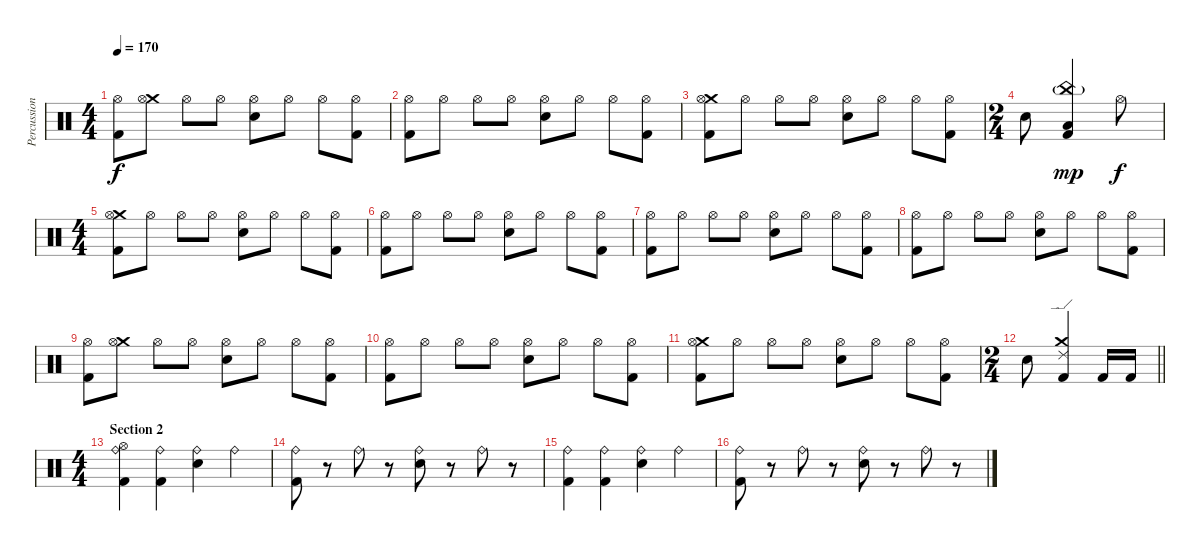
\track ("Percussions" "Percussion") {instrument percussion}
\staff {score}
\articulation defaults
\ts (4 4)
\tempo 170
\clef neutral
\ks c
("Hi-Hat (open)" "Kick (hit) 2").8{dy f} ("Crash medium (hit)" "Hi-Hat (open)").8 "Hi-Hat (open)".8 "Hi-Hat (open)".8 ("Hi-Hat (open)" "Electric Snare (hit)").8 "Hi-Hat (open)".8 "Hi-Hat (open)".8 ("Hi-Hat (open)" "Kick (hit) 2").8 |
("Hi-Hat (open)" "Kick (hit) 2").8 "Hi-Hat (open)".8 "Hi-Hat (open)".8 "Hi-Hat (open)".8 ("Hi-Hat (open)" "Electric Snare (hit)").8 "Hi-Hat (open)".8 "Hi-Hat (open)".8 ("Hi-Hat (open)" "Kick (hit) 2").8 |
("Crash medium (hit)" "Hi-Hat (open)" "Kick (hit) 2").8 "Hi-Hat (open)".8 "Hi-Hat (open)".8 "Hi-Hat (open)".8 ("Hi-Hat (open)" "Electric Snare (hit)").8 "Hi-Hat (open)".8 "Hi-Hat (open)".8 ("Hi-Hat (open)" "Kick (hit) 2").8 |
\ts (2 4)
"Electric Snare (hit)".8 ("China (hit)"{g} "Low Tom (hit)" "Kick (hit) 2").4{dy mp} "Hi-Hat (open)".8{dy f} |
\ts (4 4)
("Crash medium (hit)" "Hi-Hat (open)" "Kick (hit) 2").8 "Hi-Hat (open)".8 "Hi-Hat (open)".8 "Hi-Hat (open)".8 ("Hi-Hat (open)" "Electric Snare (hit)").8 "Hi-Hat (open)".8 "Hi-Hat (open)".8 ("Hi-Hat (open)" "Kick (hit) 2").8 |
("Hi-Hat (open)" "Kick (hit) 2").8 "Hi-Hat (open)".8 "Hi-Hat (open)".8 "Hi-Hat (open)".8 ("Hi-Hat (open)" "Electric Snare (hit)").8 "Hi-Hat (open)".8 "Hi-Hat (open)".8 ("Hi-Hat (open)" "Kick (hit) 2").8 |
("Hi-Hat (open)" "Kick (hit) 2").8 "Hi-Hat (open)".8 "Hi-Hat (open)".8 "Hi-Hat (open)".8 ("Hi-Hat (open)" "Electric Snare (hit)").8 "Hi-Hat (open)".8 "Hi-Hat (open)".8 ("Hi-Hat (open)" "Kick (hit) 2").8 |
("Hi-Hat (open)" "Kick (hit) 2").8 "Hi-Hat (open)".8 "Hi-Hat (open)".8 "Hi-Hat (open)".8 ("Hi-Hat (open)" "Electric Snare (hit)").8 "Hi-Hat (open)".8 "Hi-Hat (open)".8 ("Hi-Hat (open)" "Kick (hit) 2").8 |
("Hi-Hat (open)" "Kick (hit) 2").8 ("Crash medium (hit)" "Hi-Hat (open)").8 "Hi-Hat (open)".8 "Hi-Hat (open)".8 ("Hi-Hat (open)" "Electric Snare (hit)").8 "Hi-Hat (open)".8 "Hi-Hat (open)".8 ("Hi-Hat (open)" "Kick (hit) 2").8 |
("Hi-Hat (open)" "Kick (hit) 2").8 "Hi-Hat (open)".8 "Hi-Hat (open)".8 "Hi-Hat (open)".8 ("Hi-Hat (open)" "Electric Snare (hit)").8 "Hi-Hat (open)".8 "Hi-Hat (open)".8 ("Hi-Hat (open)" "Kick (hit) 2").8 |
("Crash medium (hit)" "Hi-Hat (open)" "Kick (hit) 2").8 "Hi-Hat (open)".8 "Hi-Hat (open)".8 "Hi-Hat (open)".8 ("Hi-Hat (open)" "Electric Snare (hit)").8 "Hi-Hat (open)".8 "Hi-Hat (open)".8 ("Hi-Hat (open)" "Kick (hit) 2").8 |
\ts (2 4)
\barLineRight lightlight "Electric Snare (hit)".8
("Ride (edge) 2" "Crash medium (hit)" "Kick (hit) 2").4 "Kick (hit) 2".16 "Kick (hit) 2".16 |
\ts (4 4)
\section ("" "Section 2")
("Hi-Hat (open)" "Ride (bell)" "Kick (hit) 2").4 ("Ride (bell)" "Kick (hit) 2").4 ("Ride (bell)" "Electric Snare (hit)").4 "Ride (bell)".4 |
("Ride (bell)" "Kick (hit) 2").8 r.8 "Ride (bell)".8 r.8 ("Ride (bell)" "Electric Snare (hit)").8 r.8 "Ride (bell)".8 r.8 |
("Ride (bell)" "Kick (hit) 2").4 ("Ride (bell)" "Kick (hit) 2").4 ("Ride (bell)" "Electric Snare (hit)").4 "Ride (bell)".4 |
("Ride (bell)" "Kick (hit) 2").8 r.8 "Ride (bell)".8 r.8 ("Ride (bell)" "Electric Snare (hit)").8 r.8 "Ride (bell)".8 r.8
